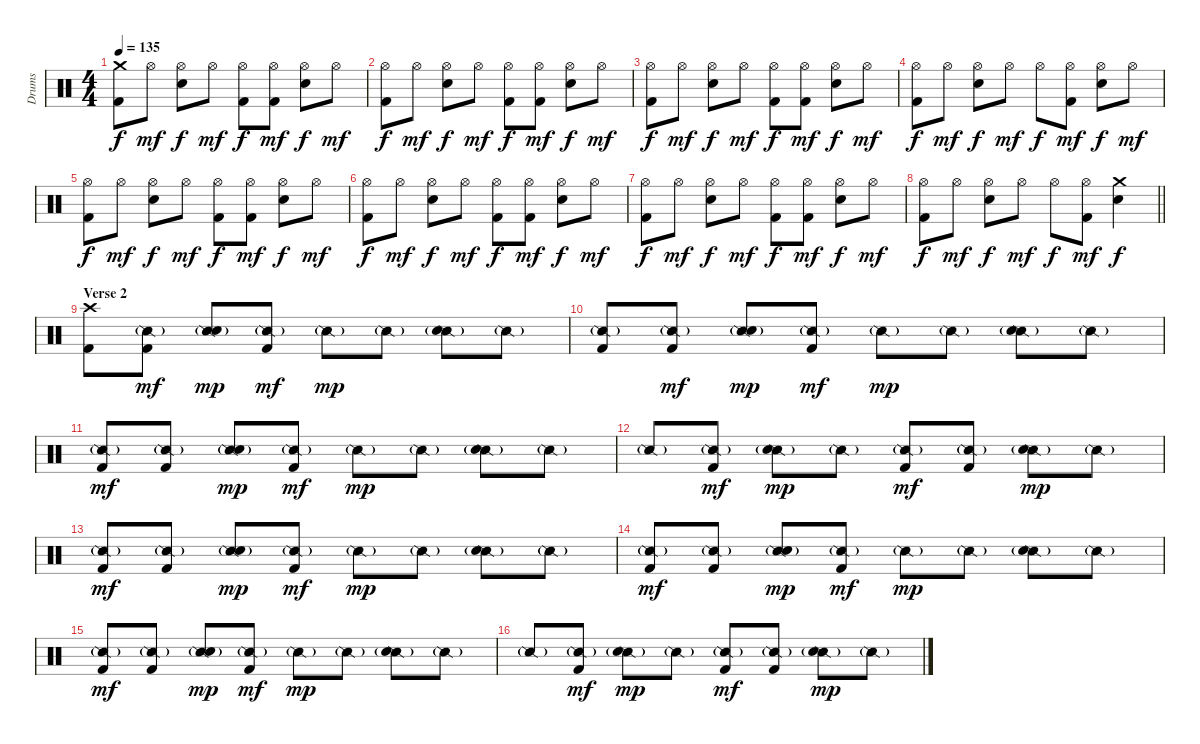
\track ("Drums" "Drums") {instrument percussion}
\staff {score}
\articulation defaults
\ts (4 4)
\tempo 135
\clef neutral
\ks c
("Crash medium (hit)" "Kick (hit) 2").8{dy f} "Hi-Hat (open)".8{dy mf} ("Hi-Hat (open)" "Electric Snare (hit)").8{dy f} "Hi-Hat (open)".8{dy mf} ("Hi-Hat (open)" "Kick (hit) 2").8{dy f} ("Hi-Hat (open)" "Kick (hit) 2").8{dy mf} ("Hi-Hat (open)" "Electric Snare (hit)").8{dy f} "Hi-Hat (open)".8{dy mf} |
("Hi-Hat (open)" "Kick (hit) 2").8{dy f} "Hi-Hat (open)".8{dy mf} ("Hi-Hat (open)" "Electric Snare (hit)").8{dy f} "Hi-Hat (open)".8{dy mf} ("Hi-Hat (open)" "Kick (hit) 2").8{dy f} ("Hi-Hat (open)" "Kick (hit) 2").8{dy mf} ("Hi-Hat (open)" "Electric Snare (hit)").8{dy f} "Hi-Hat (open)".8{dy mf} |
("Hi-Hat (open)" "Kick (hit) 2").8{dy f} "Hi-Hat (open)".8{dy mf} ("Hi-Hat (open)" "Electric Snare (hit)").8{dy f} "Hi-Hat (open)".8{dy mf} ("Hi-Hat (open)" "Kick (hit) 2").8{dy f} ("Hi-Hat (open)" "Kick (hit) 2").8{dy mf} ("Hi-Hat (open)" "Electric Snare (hit)").8{dy f} "Hi-Hat (open)".8{dy mf} |
("Hi-Hat (open)" "Kick (hit) 2").8{dy f} "Hi-Hat (open)".8{dy mf} ("Hi-Hat (open)" "Electric Snare (hit)").8{dy f} "Hi-Hat (open)".8{dy mf} "Hi-Hat (open)".8{dy f} ("Hi-Hat (open)" "Kick (hit) 2").8{dy mf} ("Hi-Hat (open)" "Electric Snare (hit)").8{dy f} "Hi-Hat (open)".8{dy mf} |
("Hi-Hat (open)" "Kick (hit) 2").8{dy f} "Hi-Hat (open)".8{dy mf} ("Hi-Hat (open)" "Electric Snare (hit)").8{dy f} "Hi-Hat (open)".8{dy mf} ("Hi-Hat (open)" "Kick (hit) 2").8{dy f} ("Hi-Hat (open)" "Kick (hit) 2").8{dy mf} ("Hi-Hat (open)" "Electric Snare (hit)").8{dy f} "Hi-Hat (open)".8{dy mf} |
("Hi-Hat (open)" "Kick (hit) 2").8{dy f} "Hi-Hat (open)".8{dy mf} ("Hi-Hat (open)" "Electric Snare (hit)").8{dy f} "Hi-Hat (open)".8{dy mf} ("Hi-Hat (open)" "Kick (hit) 2").8{dy f} ("Hi-Hat (open)" "Kick (hit) 2").8{dy mf} ("Hi-Hat (open)" "Electric Snare (hit)").8{dy f} "Hi-Hat (open)".8{dy mf} |
("Hi-Hat (open)" "Kick (hit) 2").8{dy f} "Hi-Hat (open)".8{dy mf} ("Hi-Hat (open)" "Electric Snare (hit)").8{dy f} "Hi-Hat (open)".8{dy mf} ("Hi-Hat (open)" "Kick (hit) 2").8{dy f} ("Hi-Hat (open)" "Kick (hit) 2").8{dy mf} ("Hi-Hat (open)" "Electric Snare (hit)").8{dy f} "Hi-Hat (open)".8{dy mf} |
\barLineRight lightlight
("Hi-Hat (open)" "Kick (hit) 2").8{dy f} "Hi-Hat (open)".8{dy mf} ("Hi-Hat (open)" "Electric Snare (hit)").8{dy f} "Hi-Hat (open)".8{dy mf} "Hi-Hat (open)".8{dy f} ("Hi-Hat (open)" "Kick (hit) 2").8{dy mf} ("Crash medium (hit)" "Electric Snare (hit)").4{dy f} |
\section ("" "Verse 2")
("Crash high (hit)" "Kick (hit) 2").8 ("Snare (side stick) 2"{g} "Kick (hit) 2").8{dy mf} ("Snare (side stick) 2"{g} "Snare (hit) 2").8{dy mp} ("Snare (side stick) 2"{g} "Kick (hit) 2").8{dy mf} "Snare (side stick) 2"{g}.8{dy mp} "Snare (side stick) 2"{g}.8 ("Snare (side stick) 2"{g} "Snare (hit) 2").8 "Snare (side stick) 2"{g}.8 |
("Snare (side stick) 2"{g} "Kick (hit) 2").8 ("Snare (side stick) 2"{g} "Kick (hit) 2").8{dy mf} ("Snare (side stick) 2"{g} "Snare (hit) 2").8{dy mp} ("Snare (side stick) 2"{g} "Kick (hit) 2").8{dy mf} "Snare (side stick) 2"{g}.8{dy mp} "Snare (side stick) 2"{g}.8 ("Snare (side stick) 2"{g} "Snare (hit) 2").8 "Snare (side stick) 2"{g}.8 |
("Snare (side stick) 2"{g} "Kick (hit) 2").8{dy mf} ("Snare (side stick) 2"{g} "Kick (hit) 2").8 ("Snare (side stick) 2"{g} "Snare (hit) 2").8{dy mp} ("Snare (side stick) 2"{g} "Kick (hit) 2").8{dy mf} "Snare (side stick) 2"{g}.8{dy mp} "Snare (side stick) 2"{g}.8 ("Snare (side stick) 2"{g} "Snare (hit) 2").8 "Snare (side stick) 2"{g}.8 |
"Snare (side stick) 2"{g}.8 ("Snare (side stick) 2"{g} "Kick (hit) 2").8{dy mf} ("Snare (side stick) 2"{g} "Snare (hit) 2").8{dy mp} "Snare (side stick) 2"{g}.8 ("Snare (side stick) 2"{g} "Kick (hit) 2").8{dy mf} ("Snare (side stick) 2"{g} "Kick (hit) 2").8 ("Snare (side stick) 2"{g} "Snare (hit) 2").8{dy mp} "Snare (side stick) 2"{g}.8 |
("Snare (side stick) 2"{g} "Kick (hit) 2").8{dy mf} ("Snare (side stick) 2"{g} "Kick (hit) 2").8 ("Snare (side stick) 2"{g} "Snare (hit) 2").8{dy mp} ("Snare (side stick) 2"{g} "Kick (hit) 2").8{dy mf} "Snare (side stick) 2"{g}.8{dy mp} "Snare (side stick) 2"{g}.8 ("Snare (side stick) 2"{g} "Snare (hit) 2").8 "Snare (side stick) 2"{g}.8 |
("Snare (side stick) 2"{g} "Kick (hit) 2").8{dy mf} ("Snare (side stick) 2"{g} "Kick (hit) 2").8 ("Snare (side stick) 2"{g} "Snare (hit) 2").8{dy mp} ("Snare (side stick) 2"{g} "Kick (hit) 2").8{dy mf} "Snare (side stick) 2"{g}.8{dy mp} "Snare (side stick) 2"{g}.8 ("Snare (side stick) 2"{g} "Snare (hit) 2").8 "Snare (side stick) 2"{g}.8 |
("Snare (side stick) 2"{g} "Kick (hit) 2").8{dy mf} ("Snare (side stick) 2"{g} "Kick (hit) 2").8 ("Snare (side stick) 2"{g} "Snare (hit) 2").8{dy mp} ("Snare (side stick) 2"{g} "Kick (hit) 2").8{dy mf} "Snare (side stick) 2"{g}.8{dy mp} "Snare (side stick) 2"{g}.8 ("Snare (side stick) 2"{g} "Snare (hit) 2").8 "Snare (side stick) 2"{g}.8 |
"Snare (side stick) 2"{g}.8 ("Snare (side stick) 2"{g} "Kick (hit) 2").8{dy mf} ("Snare (side stick) 2"{g} "Snare (hit) 2").8{dy mp} "Snare (side stick) 2"{g}.8 ("Snare (side stick) 2"{g} "Kick (hit) 2").8{dy mf} ("Snare (side stick) 2"{g} "Kick (hit) 2").8 ("Snare (side stick) 2"{g} "Snare (hit) 2").8{dy mp} "Snare (side stick) 2"{g}.8
